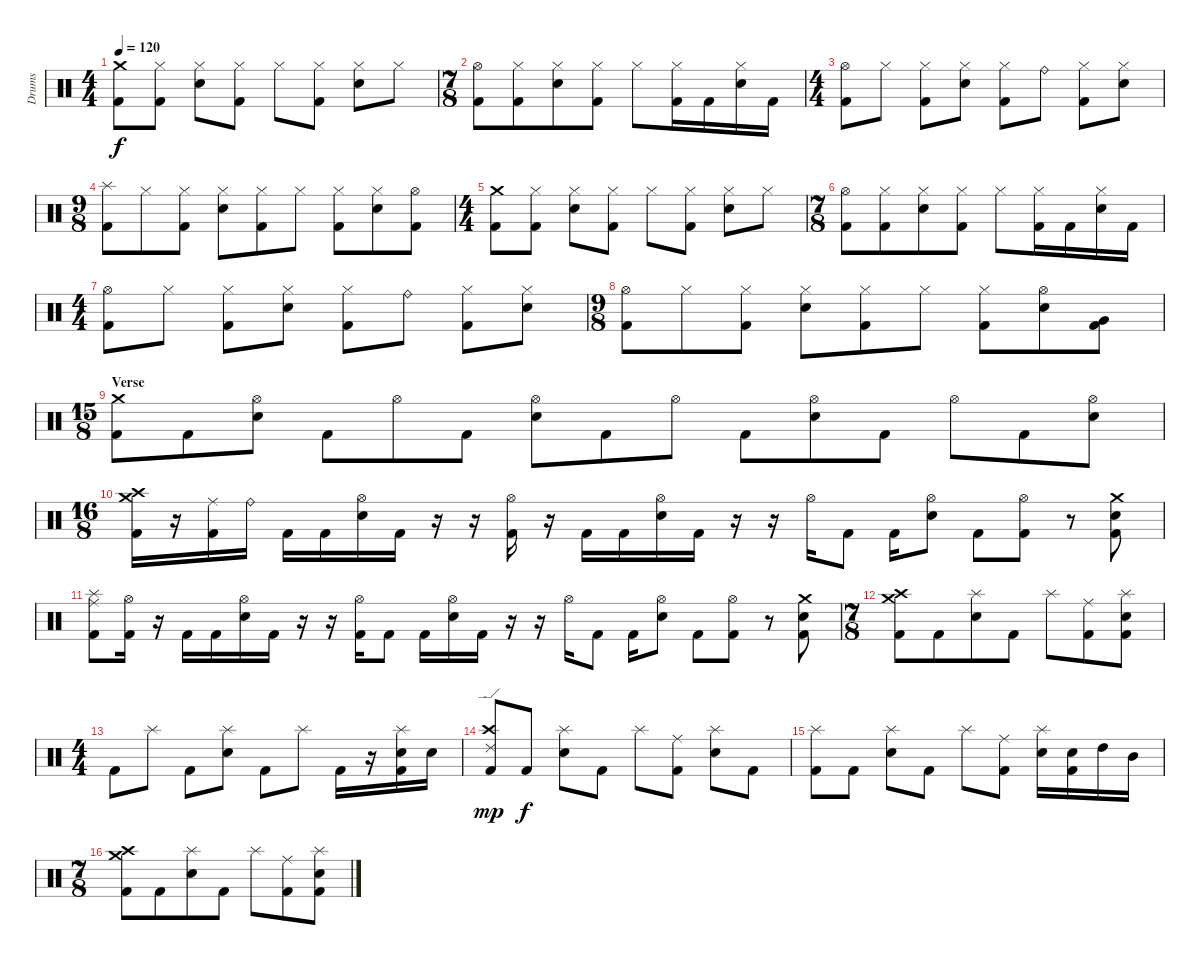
\track ("Drums" "Drums") {instrument percussion}
\staff {score}
\articulation defaults
\ts (4 4)
\tempo 120
\clef neutral
\ks c
("Crash medium (hit)" "Kick (hit) 2").8{dy f} ("Hi-Hat (closed)" "Kick (hit) 2").8 ("Hi-Hat (closed)" "Electric Snare (hit)").8 ("Hi-Hat (closed)" "Kick (hit) 2").8 "Hi-Hat (closed)".8 ("Hi-Hat (closed)" "Kick (hit) 2").8 ("Hi-Hat (closed)" "Electric Snare (hit)").8 "Hi-Hat (closed)".8 |
\ts (7 8)
("Hi-Hat (open)" "Kick (hit) 2").8 ("Hi-Hat (closed)" "Kick (hit) 2").8 ("Hi-Hat (closed)" "Electric Snare (hit)").8 ("Hi-Hat (closed)" "Kick (hit) 2").8 "Hi-Hat (closed)".8 ("Hi-Hat (closed)" "Kick (hit) 2").16 "Kick (hit) 2".16 ("Hi-Hat (closed)" "Electric Snare (hit)").16 "Kick (hit) 2".16 |
\ts (4 4)
("Hi-Hat (open)" "Kick (hit) 2").8 "Hi-Hat (closed)".8 ("Hi-Hat (closed)" "Kick (hit) 2").8 ("Hi-Hat (closed)" "Electric Snare (hit)").8 ("Hi-Hat (closed)" "Kick (hit) 2").8 "Ride (bell)".8 ("Hi-Hat (closed)" "Kick (hit) 2").8 ("Hi-Hat (closed)" "Electric Snare (hit)").8 |
\ts (9 8)
("Splash (hit)" "Kick (hit) 2").8 "Hi-Hat (closed)".8 ("Hi-Hat (closed)" "Kick (hit) 2").8 ("Hi-Hat (closed)" "Electric Snare (hit)").8 ("Hi-Hat (closed)" "Kick (hit) 2").8 "Hi-Hat (closed)".8 ("Hi-Hat (closed)" "Kick (hit) 2").8 ("Hi-Hat (closed)" "Electric Snare (hit)").8 ("Hi-Hat (open)" "Kick (hit) 2").8 |
\ts (4 4)
("Crash medium (hit)" "Kick (hit) 2").8 ("Hi-Hat (closed)" "Kick (hit) 2").8 ("Hi-Hat (closed)" "Electric Snare (hit)").8 ("Hi-Hat (closed)" "Kick (hit) 2").8 "Hi-Hat (closed)".8 ("Hi-Hat (closed)" "Kick (hit) 2").8 ("Hi-Hat (closed)" "Electric Snare (hit)").8 "Hi-Hat (closed)".8 |
\ts (7 8)
("Hi-Hat (open)" "Kick (hit) 2").8 ("Hi-Hat (closed)" "Kick (hit) 2").8 ("Hi-Hat (closed)" "Electric Snare (hit)").8 ("Hi-Hat (closed)" "Kick (hit) 2").8 "Hi-Hat (closed)".8 ("Hi-Hat (closed)" "Kick (hit) 2").16 "Kick (hit) 2".16 ("Hi-Hat (closed)" "Electric Snare (hit)").16 "Kick (hit) 2".16 |
\ts (4 4)
("Hi-Hat (open)" "Kick (hit) 2").8 "Hi-Hat (closed)".8 ("Hi-Hat (closed)" "Kick (hit) 2").8 ("Hi-Hat (closed)" "Electric Snare (hit)").8 ("Hi-Hat (closed)" "Kick (hit) 2").8 "Ride (bell)".8 ("Hi-Hat (closed)" "Kick (hit) 2").8 ("Hi-Hat (closed)" "Electric Snare (hit)").8 |
\ts (9 8)
("Hi-Hat (open)" "Kick (hit) 2").8 "Hi-Hat (closed)".8 ("Hi-Hat (closed)" "Kick (hit) 2").8 ("Hi-Hat (closed)" "Electric Snare (hit)").8 ("Hi-Hat (closed)" "Kick (hit) 2").8 "Hi-Hat (closed)".8 ("Hi-Hat (closed)" "Kick (hit) 2").8 ("Hi-Hat (open)" "Electric Snare (hit)").8 ("Very Low Tom (hit)" "Kick (hit) 2").8 |
\ts (15 8)
\section ("" "Verse")
("Crash medium (hit)" "Kick (hit) 2").8 "Kick (hit) 2".8 ("Hi-Hat (open)" "Electric Snare (hit)").8 "Kick (hit) 2".8 "Hi-Hat (open)".8 "Kick (hit) 2".8 ("Hi-Hat (open)" "Electric Snare (hit)").8 "Kick (hit) 2".8 "Hi-Hat (open)".8 "Kick (hit) 2".8 ("Hi-Hat (open)" "Electric Snare (hit)").8 "Kick (hit) 2".8 "Hi-Hat (open)".8 "Kick (hit) 2".8 ("Hi-Hat (open)" "Electric Snare (hit)").8 |
\ts (16 8)
("Crash medium (hit)" "Crash high (hit)" "Kick (hit) 2").16 r.16 ("Ride (middle)" "Kick (hit) 2").16 "Ride (bell)".16 "Kick (hit) 2".16 "Kick (hit) 2".16 ("Hi-Hat (open)" "Electric Snare (hit)").16 "Kick (hit) 2".16 r.16 r.16 ("Hi-Hat (open)" "Kick (hit) 2").16 r.16 "Kick (hit) 2".16 "Kick (hit) 2".16 ("Hi-Hat (open)" "Electric Snare (hit)").16 "Kick (hit) 2".16 r.16 r.16 "Hi-Hat (open)".16 "Kick (hit) 2".8 "Kick (hit) 2".16 ("Hi-Hat (open)" "Electric Snare (hit)").8 "Kick (hit) 2".8 ("Hi-Hat (open)" "Kick (hit) 2").8 r.8 ("Crash medium (hit)" "Electric Snare (hit)" "Kick (hit) 2").8 |
("Splash (hit)" "Ride (middle)" "Kick (hit) 2").8 ("Hi-Hat (open)" "Kick (hit) 2").16 r.16 "Kick (hit) 2".16 "Kick (hit) 2".16 ("Hi-Hat (open)" "Electric Snare (hit)").16 "Kick (hit) 2".16 r.16 r.16 ("Hi-Hat (open)" "Kick (hit) 2").16 "Kick (hit) 2".8 "Kick (hit) 2".16 ("Hi-Hat (open)" "Electric Snare (hit)").16 "Kick (hit) 2".16 r.16 r.16 "Hi-Hat (open)".16 "Kick (hit) 2".8 "Kick (hit) 2".16 ("Hi-Hat (open)" "Electric Snare (hit)").8 "Kick (hit) 2".8 ("Hi-Hat (open)" "Kick (hit) 2").8 r.8 ("Crash medium (hit)" "Electric Snare (hit)" "Kick (hit) 2").8 |
\ts (7 8)
("Crash high (hit)" "Crash medium (hit)" "Kick (hit) 2").8 "Kick (hit) 2".8 ("Splash (hit)" "Electric Snare (hit)").8 "Kick (hit) 2".8 "Splash (hit)".8 ("Ride (middle)" "Kick (hit) 2").8 ("Splash (hit)" "Electric Snare (hit)" "Kick (hit) 2").8 |
\ts (4 4)
"Kick (hit) 2".8 "Splash (hit)".8 "Kick (hit) 2".8 ("Splash (hit)" "Electric Snare (hit)").8 "Kick (hit) 2".8 "Splash (hit)".8 "Kick (hit) 2".16 r.16 ("Splash (hit)" "Electric Snare (hit)" "Kick (hit) 2").16 "Electric Snare (hit)".16 |
("Ride (edge) 2" "Crash high (hit)" "Kick (hit) 2").8{dy mp} "Kick (hit) 2".8{dy f} ("Splash (hit)" "Electric Snare (hit)").8 "Kick (hit) 2".8 "Splash (hit)".8 ("Ride (middle)" "Kick (hit) 2").8 ("Splash (hit)" "Electric Snare (hit)").8 "Kick (hit) 2".8 |
("Splash (hit)" "Kick (hit) 2").8 "Kick (hit) 2".8 ("Splash (hit)" "Electric Snare (hit)").8 "Kick (hit) 2".8 "Splash (hit)".8 ("Ride (middle)" "Kick (hit) 2").8 ("Splash (hit)" "Electric Snare (hit)").16 ("Electric Snare (hit)" "Kick (hit) 2").16 "High Tom (hit)".16 "Mid Tom (hit)".16 |
\ts (7 8)
("Crash high (hit)" "Crash medium (hit)" "Kick (hit) 2").8 "Kick (hit) 2".8 ("Splash (hit)" "Electric Snare (hit)").8 "Kick (hit) 2".8 "Splash (hit)".8 ("Ride (middle)" "Kick (hit) 2").8 ("Splash (hit)" "Electric Snare (hit)" "Kick (hit) 2").8
